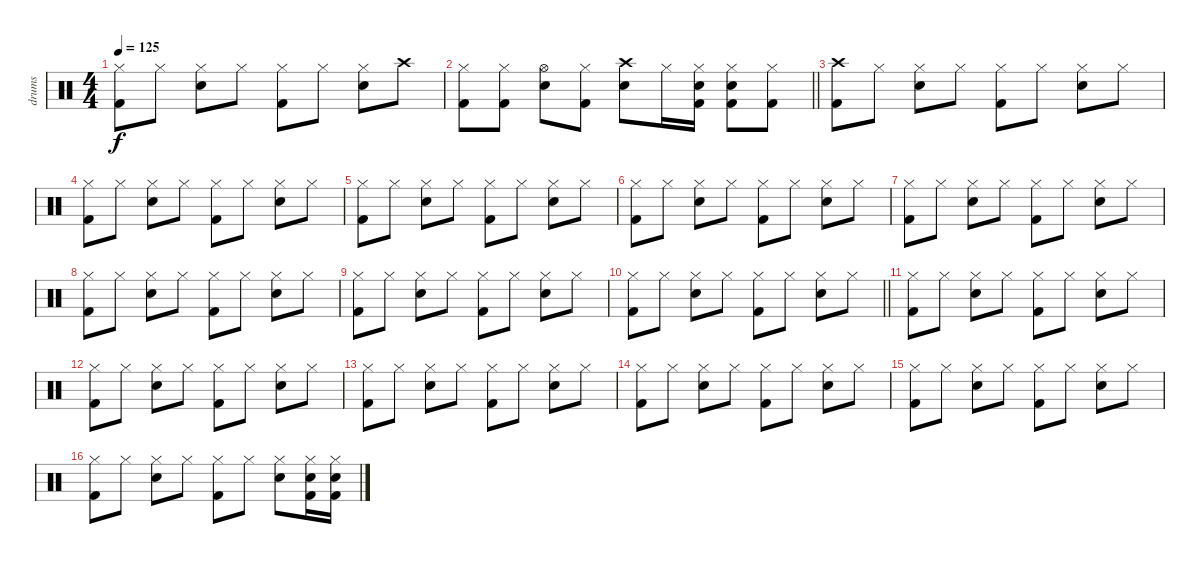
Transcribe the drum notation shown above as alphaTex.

\track ("drums" "drums") {instrument percussion}
\staff {score}
\articulation defaults
\ts (4 4)
\tempo 125
\clef neutral
\ks c
("Hi-Hat (closed)" "Kick (hit) 2").8{dy f} "Hi-Hat (closed)".8 ("Hi-Hat (closed)" "Snare (hit) 2").8 "Hi-Hat (closed)".8 ("Hi-Hat (closed)" "Kick (hit) 2").8 "Hi-Hat (closed)".8 ("Hi-Hat (closed)" "Snare (hit) 2").8 "Crash high (hit)".8 |
\barLineRight lightlight
("Hi-Hat (closed)" "Kick (hit) 2").8 ("Hi-Hat (closed)" "Kick (hit) 2").8 ("Hi-Hat (open)" "Snare (hit) 2").8 ("Hi-Hat (closed)" "Kick (hit) 2").8 ("Crash high (hit)" "Snare (hit) 2").8 "Hi-Hat (closed)".16 ("Hi-Hat (closed)" "Snare (hit) 2" "Kick (hit) 2").16 ("Hi-Hat (closed)" "Snare (hit) 2" "Kick (hit) 2").8 ("Hi-Hat (closed)" "Kick (hit) 2").8 |
("Crash high (hit)" "Kick (hit) 2").8 "Hi-Hat (closed)".8 ("Hi-Hat (closed)" "Snare (hit) 2").8 "Hi-Hat (closed)".8 ("Hi-Hat (closed)" "Kick (hit) 2").8 "Hi-Hat (closed)".8 ("Hi-Hat (closed)" "Snare (hit) 2").8 "Hi-Hat (closed)".8 |
("Hi-Hat (closed)" "Kick (hit) 2").8 "Hi-Hat (closed)".8 ("Hi-Hat (closed)" "Snare (hit) 2").8 "Hi-Hat (closed)".8 ("Hi-Hat (closed)" "Kick (hit) 2").8 "Hi-Hat (closed)".8 ("Hi-Hat (closed)" "Snare (hit) 2").8 "Hi-Hat (closed)".8 |
("Hi-Hat (closed)" "Kick (hit) 2").8 "Hi-Hat (closed)".8 ("Hi-Hat (closed)" "Snare (hit) 2").8 "Hi-Hat (closed)".8 ("Hi-Hat (closed)" "Kick (hit) 2").8 "Hi-Hat (closed)".8 ("Hi-Hat (closed)" "Snare (hit) 2").8 "Hi-Hat (closed)".8 |
("Hi-Hat (closed)" "Kick (hit) 2").8 "Hi-Hat (closed)".8 ("Hi-Hat (closed)" "Snare (hit) 2").8 "Hi-Hat (closed)".8 ("Hi-Hat (closed)" "Kick (hit) 2").8 "Hi-Hat (closed)".8 ("Hi-Hat (closed)" "Snare (hit) 2").8 "Hi-Hat (closed)".8 |
("Hi-Hat (closed)" "Kick (hit) 2").8 "Hi-Hat (closed)".8 ("Hi-Hat (closed)" "Snare (hit) 2").8 "Hi-Hat (closed)".8 ("Hi-Hat (closed)" "Kick (hit) 2").8 "Hi-Hat (closed)".8 ("Hi-Hat (closed)" "Snare (hit) 2").8 "Hi-Hat (closed)".8 |
("Hi-Hat (closed)" "Kick (hit) 2").8 "Hi-Hat (closed)".8 ("Hi-Hat (closed)" "Snare (hit) 2").8 "Hi-Hat (closed)".8 ("Hi-Hat (closed)" "Kick (hit) 2").8 "Hi-Hat (closed)".8 ("Hi-Hat (closed)" "Snare (hit) 2").8 "Hi-Hat (closed)".8 |
("Hi-Hat (closed)" "Kick (hit) 2").8 "Hi-Hat (closed)".8 ("Hi-Hat (closed)" "Snare (hit) 2").8 "Hi-Hat (closed)".8 ("Hi-Hat (closed)" "Kick (hit) 2").8 "Hi-Hat (closed)".8 ("Hi-Hat (closed)" "Snare (hit) 2").8 "Hi-Hat (closed)".8 |
\barLineRight lightlight
("Hi-Hat (closed)" "Kick (hit) 2").8 "Hi-Hat (closed)".8 ("Hi-Hat (closed)" "Snare (hit) 2").8 "Hi-Hat (closed)".8 ("Hi-Hat (closed)" "Kick (hit) 2").8 "Hi-Hat (closed)".8 ("Hi-Hat (closed)" "Snare (hit) 2").8 "Hi-Hat (closed)".8 |
("Hi-Hat (closed)" "Kick (hit) 2").8 "Hi-Hat (closed)".8 ("Hi-Hat (closed)" "Snare (hit) 2").8 "Hi-Hat (closed)".8 ("Hi-Hat (closed)" "Kick (hit) 2").8 "Hi-Hat (closed)".8 ("Hi-Hat (closed)" "Snare (hit) 2").8 "Hi-Hat (closed)".8 |
("Hi-Hat (closed)" "Kick (hit) 2").8 "Hi-Hat (closed)".8 ("Hi-Hat (closed)" "Snare (hit) 2").8 "Hi-Hat (closed)".8 ("Hi-Hat (closed)" "Kick (hit) 2").8 "Hi-Hat (closed)".8 ("Hi-Hat (closed)" "Snare (hit) 2").8 "Hi-Hat (closed)".8 |
("Hi-Hat (closed)" "Kick (hit) 2").8 "Hi-Hat (closed)".8 ("Hi-Hat (closed)" "Snare (hit) 2").8 "Hi-Hat (closed)".8 ("Hi-Hat (closed)" "Kick (hit) 2").8 "Hi-Hat (closed)".8 ("Hi-Hat (closed)" "Snare (hit) 2").8 "Hi-Hat (closed)".8 |
("Hi-Hat (closed)" "Kick (hit) 2").8 "Hi-Hat (closed)".8 ("Hi-Hat (closed)" "Snare (hit) 2").8 "Hi-Hat (closed)".8 ("Hi-Hat (closed)" "Kick (hit) 2").8 "Hi-Hat (closed)".8 ("Hi-Hat (closed)" "Snare (hit) 2").8 "Hi-Hat (closed)".8 |
("Hi-Hat (closed)" "Kick (hit) 2").8 "Hi-Hat (closed)".8 ("Hi-Hat (closed)" "Snare (hit) 2").8 "Hi-Hat (closed)".8 ("Hi-Hat (closed)" "Kick (hit) 2").8 "Hi-Hat (closed)".8 ("Hi-Hat (closed)" "Snare (hit) 2").8 "Hi-Hat (closed)".8 |
("Hi-Hat (closed)" "Kick (hit) 2").8 "Hi-Hat (closed)".8 ("Hi-Hat (closed)" "Snare (hit) 2").8 "Hi-Hat (closed)".8 ("Hi-Hat (closed)" "Kick (hit) 2").8 "Hi-Hat (closed)".8 ("Hi-Hat (closed)" "Snare (hit) 2").8 ("Hi-Hat (closed)" "Snare (hit) 2" "Kick (hit) 2").16 ("Hi-Hat (closed)" "Snare (hit) 2" "Kick (hit) 2").16
